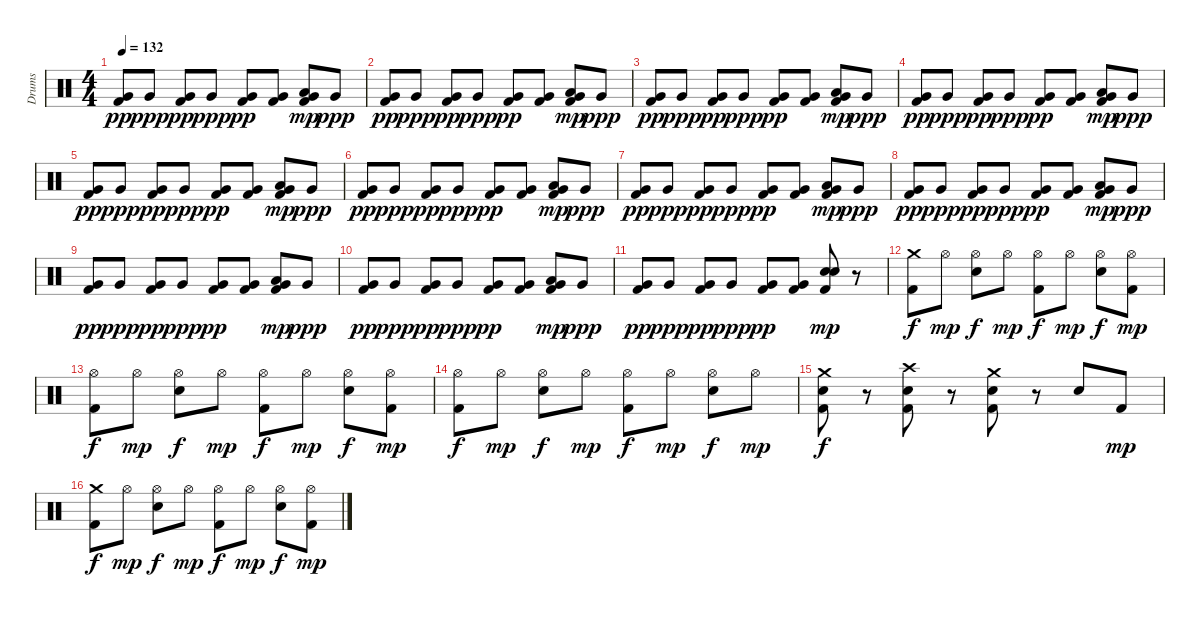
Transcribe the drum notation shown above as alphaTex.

\track ("Drums" "Drums") {instrument percussion}
\staff {score}
\articulation defaults
\ts (4 4)
\tempo 132
\clef neutral
\ks c
("Very Low Tom (hit)" "Kick (hit) 2").8{dy pp} "Very Low Tom (hit)".8{dy ppp} ("Very Low Tom (hit)" "Kick (hit) 2").8{dy pp} "Very Low Tom (hit)".8{dy ppp} ("Very Low Tom (hit)" "Kick (hit) 2").8{dy pp} ("Kick (hit) 2" "Very Low Tom (hit)").8 ("Low Floor Tom (hit)" "Very Low Tom (hit)" "Kick (hit) 2").8{dy mp} "Very Low Tom (hit)".8{dy ppp} |
("Very Low Tom (hit)" "Kick (hit) 2").8{dy pp} "Very Low Tom (hit)".8{dy ppp} ("Very Low Tom (hit)" "Kick (hit) 2").8{dy pp} "Very Low Tom (hit)".8{dy ppp} ("Very Low Tom (hit)" "Kick (hit) 2").8{dy pp} ("Kick (hit) 2" "Very Low Tom (hit)").8 ("Low Floor Tom (hit)" "Very Low Tom (hit)" "Kick (hit) 2").8{dy mp} "Very Low Tom (hit)".8{dy ppp} |
("Very Low Tom (hit)" "Kick (hit) 2").8{dy pp} "Very Low Tom (hit)".8{dy ppp} ("Very Low Tom (hit)" "Kick (hit) 2").8{dy pp} "Very Low Tom (hit)".8{dy ppp} ("Very Low Tom (hit)" "Kick (hit) 2").8{dy pp} ("Kick (hit) 2" "Very Low Tom (hit)").8 ("Low Floor Tom (hit)" "Very Low Tom (hit)" "Kick (hit) 2").8{dy mp} "Very Low Tom (hit)".8{dy ppp} |
("Very Low Tom (hit)" "Kick (hit) 2").8{dy pp} "Very Low Tom (hit)".8{dy ppp} ("Very Low Tom (hit)" "Kick (hit) 2").8{dy pp} "Very Low Tom (hit)".8{dy ppp} ("Very Low Tom (hit)" "Kick (hit) 2").8{dy pp} ("Kick (hit) 2" "Very Low Tom (hit)").8 ("Low Floor Tom (hit)" "Very Low Tom (hit)" "Kick (hit) 2").8{dy mp} "Very Low Tom (hit)".8{dy ppp} |
("Very Low Tom (hit)" "Kick (hit) 2").8{dy pp} "Very Low Tom (hit)".8{dy ppp} ("Very Low Tom (hit)" "Kick (hit) 2").8{dy pp} "Very Low Tom (hit)".8{dy ppp} ("Very Low Tom (hit)" "Kick (hit) 2").8{dy pp} ("Kick (hit) 2" "Very Low Tom (hit)").8 ("Low Floor Tom (hit)" "Very Low Tom (hit)" "Kick (hit) 2").8{dy mp} "Very Low Tom (hit)".8{dy ppp} |
("Very Low Tom (hit)" "Kick (hit) 2").8{dy pp} "Very Low Tom (hit)".8{dy ppp} ("Very Low Tom (hit)" "Kick (hit) 2").8{dy pp} "Very Low Tom (hit)".8{dy ppp} ("Very Low Tom (hit)" "Kick (hit) 2").8{dy pp} ("Kick (hit) 2" "Very Low Tom (hit)").8 ("Low Floor Tom (hit)" "Very Low Tom (hit)" "Kick (hit) 2").8{dy mp} "Very Low Tom (hit)".8{dy ppp} |
("Very Low Tom (hit)" "Kick (hit) 2").8{dy pp} "Very Low Tom (hit)".8{dy ppp} ("Very Low Tom (hit)" "Kick (hit) 2").8{dy pp} "Very Low Tom (hit)".8{dy ppp} ("Very Low Tom (hit)" "Kick (hit) 2").8{dy pp} ("Kick (hit) 2" "Very Low Tom (hit)").8 ("Low Floor Tom (hit)" "Very Low Tom (hit)" "Kick (hit) 2").8{dy mp} "Very Low Tom (hit)".8{dy ppp} |
("Very Low Tom (hit)" "Kick (hit) 2").8{dy pp} "Very Low Tom (hit)".8{dy ppp} ("Very Low Tom (hit)" "Kick (hit) 2").8{dy pp} "Very Low Tom (hit)".8{dy ppp} ("Very Low Tom (hit)" "Kick (hit) 2").8{dy pp} ("Kick (hit) 2" "Very Low Tom (hit)").8 ("Low Floor Tom (hit)" "Very Low Tom (hit)" "Kick (hit) 2").8{dy mp} "Very Low Tom (hit)".8{dy ppp} |
("Very Low Tom (hit)" "Kick (hit) 2").8{dy pp} "Very Low Tom (hit)".8{dy ppp} ("Very Low Tom (hit)" "Kick (hit) 2").8{dy pp} "Very Low Tom (hit)".8{dy ppp} ("Very Low Tom (hit)" "Kick (hit) 2").8{dy pp} ("Kick (hit) 2" "Very Low Tom (hit)").8 ("Low Floor Tom (hit)" "Very Low Tom (hit)" "Kick (hit) 2").8{dy mp} "Very Low Tom (hit)".8{dy ppp} |
("Very Low Tom (hit)" "Kick (hit) 2").8{dy pp} "Very Low Tom (hit)".8{dy ppp} ("Very Low Tom (hit)" "Kick (hit) 2").8{dy pp} "Very Low Tom (hit)".8{dy ppp} ("Very Low Tom (hit)" "Kick (hit) 2").8{dy pp} ("Kick (hit) 2" "Very Low Tom (hit)").8 ("Low Floor Tom (hit)" "Very Low Tom (hit)" "Kick (hit) 2").8{dy mp} "Very Low Tom (hit)".8{dy ppp} |
("Very Low Tom (hit)" "Kick (hit) 2").8{dy pp} "Very Low Tom (hit)".8{dy ppp} ("Very Low Tom (hit)" "Kick (hit) 2").8{dy pp} "Very Low Tom (hit)".8{dy ppp} ("Very Low Tom (hit)" "Kick (hit) 2").8{dy pp} ("Kick (hit) 2" "Very Low Tom (hit)").8 ("Electric Snare (hit)" "Kick (hit) 2" "Snare (hit) 2").8{dy mp} r.8 |
("Crash medium (hit)" "Kick (hit) 2").8{dy f} "Hi-Hat (open)".8{dy mp} ("Hi-Hat (open)" "Electric Snare (hit)").8{dy f} "Hi-Hat (open)".8{dy mp} ("Kick (hit) 2" "Hi-Hat (open)").8{dy f} "Hi-Hat (open)".8{dy mp} ("Hi-Hat (open)" "Electric Snare (hit)").8{dy f} ("Kick (hit) 2" "Hi-Hat (open)").8{dy mp} |
("Hi-Hat (open)" "Kick (hit) 2").8{dy f} "Hi-Hat (open)".8{dy mp} ("Hi-Hat (open)" "Electric Snare (hit)").8{dy f} "Hi-Hat (open)".8{dy mp} ("Hi-Hat (open)" "Kick (hit) 2").8{dy f} "Hi-Hat (open)".8{dy mp} ("Hi-Hat (open)" "Electric Snare (hit)").8{dy f} ("Kick (hit) 2" "Hi-Hat (open)").8{dy mp} |
("Hi-Hat (open)" "Kick (hit) 2").8{dy f} "Hi-Hat (open)".8{dy mp} ("Hi-Hat (open)" "Electric Snare (hit)").8{dy f} "Hi-Hat (open)".8{dy mp} ("Hi-Hat (open)" "Kick (hit) 2").8{dy f} "Hi-Hat (open)".8{dy mp} ("Hi-Hat (open)" "Electric Snare (hit)").8{dy f} "Hi-Hat (open)".8{dy mp} |
("Electric Snare (hit)" "Crash medium (hit)" "Kick (hit) 2").8{dy f} r.8 ("Electric Snare (hit)" "Crash high (hit)" "Kick (hit) 2").8 r.8 ("Electric Snare (hit)" "Crash medium (hit)" "Kick (hit) 2").8 r.8 "Electric Snare (hit)".8 "Kick (hit) 2".8{dy mp} |
("Crash medium (hit)" "Kick (hit) 2").8{dy f} "Hi-Hat (open)".8{dy mp} ("Hi-Hat (open)" "Electric Snare (hit)").8{dy f} "Hi-Hat (open)".8{dy mp} ("Kick (hit) 2" "Hi-Hat (open)").8{dy f} "Hi-Hat (open)".8{dy mp} ("Hi-Hat (open)" "Electric Snare (hit)").8{dy f} ("Kick (hit) 2" "Hi-Hat (open)").8{dy mp}
